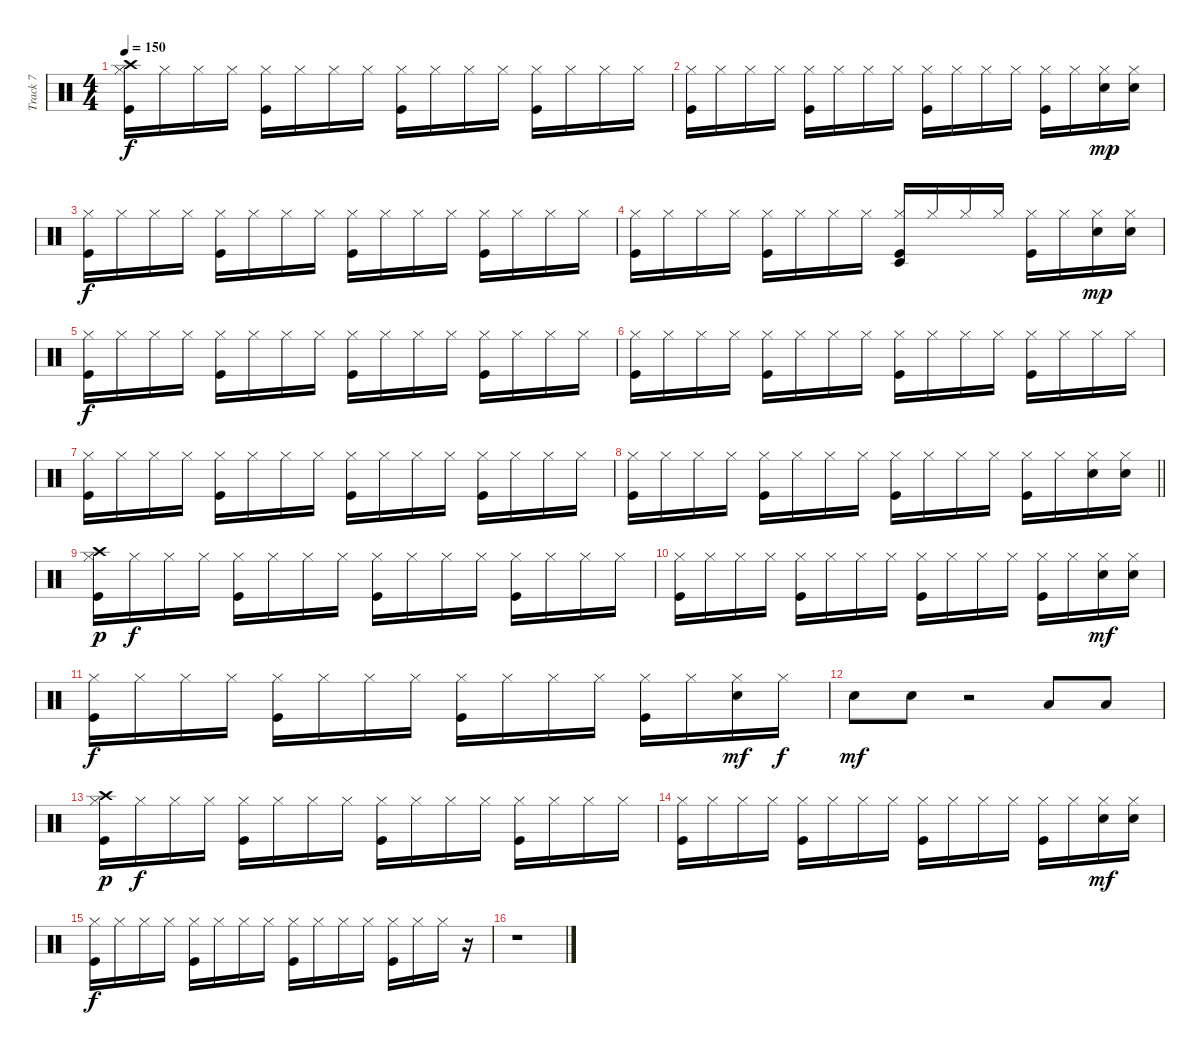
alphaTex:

\track ("Track 7" "Track 7") {instrument percussion}
\staff {score}
\articulation defaults
\ts (4 4)
\section ("" "")
\tempo 150
\clef neutral
\ks c
("Crash high (hit)" "Kick (hit)" "Hi-Hat (closed)").16{dy f} "Hi-Hat (closed)".16 "Hi-Hat (closed)".16 "Hi-Hat (closed)".16 ("Kick (hit)" "Hi-Hat (closed)").16 "Hi-Hat (closed)".16 "Hi-Hat (closed)".16 "Hi-Hat (closed)".16 ("Kick (hit)" "Hi-Hat (closed)").16 "Hi-Hat (closed)".16 "Hi-Hat (closed)".16 "Hi-Hat (closed)".16 ("Kick (hit)" "Hi-Hat (closed)").16 "Hi-Hat (closed)".16 "Hi-Hat (closed)".16 "Hi-Hat (closed)".16 |
("Kick (hit)" "Hi-Hat (closed)").16 "Hi-Hat (closed)".16 "Hi-Hat (closed)".16 "Hi-Hat (closed)".16 ("Kick (hit)" "Hi-Hat (closed)").16 "Hi-Hat (closed)".16 "Hi-Hat (closed)".16 "Hi-Hat (closed)".16 ("Kick (hit)" "Hi-Hat (closed)").16 "Hi-Hat (closed)".16 "Hi-Hat (closed)".16 "Hi-Hat (closed)".16 ("Kick (hit)" "Hi-Hat (closed)").16 "Hi-Hat (closed)".16 ("Snare (hit) 2" "Hi-Hat (closed)").16{dy mp} ("Snare (hit) 2" "Hi-Hat (closed)").16 |
("Kick (hit)" "Hi-Hat (closed)").16{dy f} "Hi-Hat (closed)".16 "Hi-Hat (closed)".16 "Hi-Hat (closed)".16 ("Kick (hit)" "Hi-Hat (closed)").16 "Hi-Hat (closed)".16 "Hi-Hat (closed)".16 "Hi-Hat (closed)".16 ("Kick (hit)" "Hi-Hat (closed)").16 "Hi-Hat (closed)".16 "Hi-Hat (closed)".16 "Hi-Hat (closed)".16 ("Kick (hit)" "Hi-Hat (closed)").16 "Hi-Hat (closed)".16 "Hi-Hat (closed)".16 "Hi-Hat (closed)".16 |
("Kick (hit)" "Hi-Hat (closed)").16 "Hi-Hat (closed)".16 "Hi-Hat (closed)".16 "Hi-Hat (closed)".16 ("Kick (hit)" "Hi-Hat (closed)").16 "Hi-Hat (closed)".16 "Hi-Hat (closed)".16 "Hi-Hat (closed)".16 ("Timbale low (hit)" "Kick (hit)" "Hi-Hat (closed)").16 "Hi-Hat (closed)".16 "Hi-Hat (closed)".16 "Hi-Hat (closed)".16 ("Kick (hit)" "Hi-Hat (closed)").16 "Hi-Hat (closed)".16 ("Snare (hit) 2" "Hi-Hat (closed)").16{dy mp} ("Snare (hit) 2" "Hi-Hat (closed)").16 |
("Kick (hit)" "Hi-Hat (closed)").16{dy f} "Hi-Hat (closed)".16 "Hi-Hat (closed)".16 "Hi-Hat (closed)".16 ("Kick (hit)" "Hi-Hat (closed)").16 "Hi-Hat (closed)".16 "Hi-Hat (closed)".16 "Hi-Hat (closed)".16 ("Kick (hit)" "Hi-Hat (closed)").16 "Hi-Hat (closed)".16 "Hi-Hat (closed)".16 "Hi-Hat (closed)".16 ("Kick (hit)" "Hi-Hat (closed)").16 "Hi-Hat (closed)".16 "Hi-Hat (closed)".16 "Hi-Hat (closed)".16 |
("Kick (hit)" "Hi-Hat (closed)").16 "Hi-Hat (closed)".16 "Hi-Hat (closed)".16 "Hi-Hat (closed)".16 ("Kick (hit)" "Hi-Hat (closed)").16 "Hi-Hat (closed)".16 "Hi-Hat (closed)".16 "Hi-Hat (closed)".16 ("Kick (hit)" "Hi-Hat (closed)").16 "Hi-Hat (closed)".16 "Hi-Hat (closed)".16 "Hi-Hat (closed)".16 ("Kick (hit)" "Hi-Hat (closed)").16 "Hi-Hat (closed)".16 "Hi-Hat (closed)".16 "Hi-Hat (closed)".16 |
("Kick (hit)" "Hi-Hat (closed)").16 "Hi-Hat (closed)".16 "Hi-Hat (closed)".16 "Hi-Hat (closed)".16 ("Kick (hit)" "Hi-Hat (closed)").16 "Hi-Hat (closed)".16 "Hi-Hat (closed)".16 "Hi-Hat (closed)".16 ("Kick (hit)" "Hi-Hat (closed)").16 "Hi-Hat (closed)".16 "Hi-Hat (closed)".16 "Hi-Hat (closed)".16 ("Kick (hit)" "Hi-Hat (closed)").16 "Hi-Hat (closed)".16 "Hi-Hat (closed)".16 "Hi-Hat (closed)".16 |
\barLineRight lightlight
("Kick (hit)" "Hi-Hat (closed)").16 "Hi-Hat (closed)".16 "Hi-Hat (closed)".16 "Hi-Hat (closed)".16 ("Kick (hit)" "Hi-Hat (closed)").16 "Hi-Hat (closed)".16 "Hi-Hat (closed)".16 "Hi-Hat (closed)".16 ("Kick (hit)" "Hi-Hat (closed)").16 "Hi-Hat (closed)".16 "Hi-Hat (closed)".16 "Hi-Hat (closed)".16 ("Kick (hit)" "Hi-Hat (closed)").16 "Hi-Hat (closed)".16 ("Snare (hit) 2" "Hi-Hat (closed)").16 ("Snare (hit) 2" "Hi-Hat (closed)").16 |
\section ("" "")
("Crash high (hit)" "Kick (hit)" "Hi-Hat (closed)").16{dy p} "Hi-Hat (closed)".16{dy f} "Hi-Hat (closed)".16 "Hi-Hat (closed)".16 ("Kick (hit)" "Hi-Hat (closed)").16 "Hi-Hat (closed)".16 "Hi-Hat (closed)".16 "Hi-Hat (closed)".16 ("Kick (hit)" "Hi-Hat (closed)").16 "Hi-Hat (closed)".16 "Hi-Hat (closed)".16 "Hi-Hat (closed)".16 ("Kick (hit)" "Hi-Hat (closed)").16 "Hi-Hat (closed)".16 "Hi-Hat (closed)".16 "Hi-Hat (closed)".16 |
("Kick (hit)" "Hi-Hat (closed)").16 "Hi-Hat (closed)".16 "Hi-Hat (closed)".16 "Hi-Hat (closed)".16 ("Kick (hit)" "Hi-Hat (closed)").16 "Hi-Hat (closed)".16 "Hi-Hat (closed)".16 "Hi-Hat (closed)".16 ("Kick (hit)" "Hi-Hat (closed)").16 "Hi-Hat (closed)".16 "Hi-Hat (closed)".16 "Hi-Hat (closed)".16 ("Kick (hit)" "Hi-Hat (closed)").16 "Hi-Hat (closed)".16 ("Snare (hit) 2" "Hi-Hat (closed)").16{dy mf} ("Snare (hit) 2" "Hi-Hat (closed)").16 |
("Kick (hit)" "Hi-Hat (closed)").16{dy f} "Hi-Hat (closed)".16 "Hi-Hat (closed)".16 "Hi-Hat (closed)".16 ("Kick (hit)" "Hi-Hat (closed)").16 "Hi-Hat (closed)".16 "Hi-Hat (closed)".16 "Hi-Hat (closed)".16 ("Kick (hit)" "Hi-Hat (closed)").16 "Hi-Hat (closed)".16 "Hi-Hat (closed)".16 "Hi-Hat (closed)".16 ("Kick (hit)" "Hi-Hat (closed)").16 "Hi-Hat (closed)".16 ("Snare (hit) 2" "Hi-Hat (closed)").16{dy mf} "Hi-Hat (closed)".16{dy f} |
"Snare (hit) 2".8{dy mf} "Snare (hit) 2".8 r.2 "Low Floor Tom (hit)".8 "Low Tom (hit)".8 |
("Crash high (hit)" "Kick (hit)" "Hi-Hat (closed)").16{dy p} "Hi-Hat (closed)".16{dy f} "Hi-Hat (closed)".16 "Hi-Hat (closed)".16 ("Kick (hit)" "Hi-Hat (closed)").16 "Hi-Hat (closed)".16 "Hi-Hat (closed)".16 "Hi-Hat (closed)".16 ("Kick (hit)" "Hi-Hat (closed)").16 "Hi-Hat (closed)".16 "Hi-Hat (closed)".16 "Hi-Hat (closed)".16 ("Kick (hit)" "Hi-Hat (closed)").16 "Hi-Hat (closed)".16 "Hi-Hat (closed)".16 "Hi-Hat (closed)".16 |
("Kick (hit)" "Hi-Hat (closed)").16 "Hi-Hat (closed)".16 "Hi-Hat (closed)".16 "Hi-Hat (closed)".16 ("Kick (hit)" "Hi-Hat (closed)").16 "Hi-Hat (closed)".16 "Hi-Hat (closed)".16 "Hi-Hat (closed)".16 ("Kick (hit)" "Hi-Hat (closed)").16 "Hi-Hat (closed)".16 "Hi-Hat (closed)".16 "Hi-Hat (closed)".16 ("Kick (hit)" "Hi-Hat (closed)").16 "Hi-Hat (closed)".16 ("Snare (hit) 2" "Hi-Hat (closed)").16{dy mf} ("Snare (hit) 2" "Hi-Hat (closed)").16 |
("Kick (hit)" "Hi-Hat (closed)").16{dy f} "Hi-Hat (closed)".16 "Hi-Hat (closed)".16 "Hi-Hat (closed)".16 ("Kick (hit)" "Hi-Hat (closed)").16 "Hi-Hat (closed)".16 "Hi-Hat (closed)".16 "Hi-Hat (closed)".16 ("Kick (hit)" "Hi-Hat (closed)").16 "Hi-Hat (closed)".16 "Hi-Hat (closed)".16 "Hi-Hat (closed)".16 ("Kick (hit)" "Hi-Hat (closed)").16 "Hi-Hat (closed)".16 "Hi-Hat (closed)".16 r.16 |
r.1
